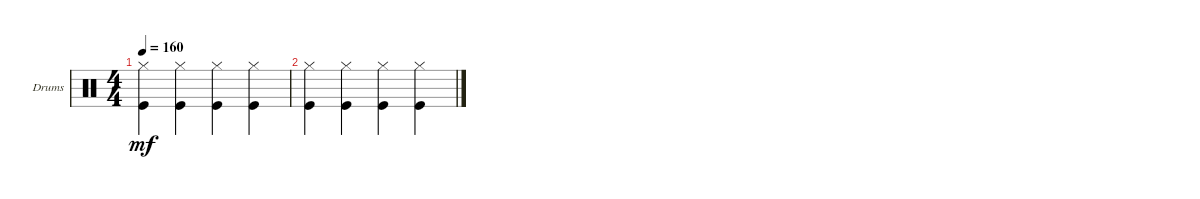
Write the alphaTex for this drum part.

\defaultSystemsLayout 4
\bracketExtendMode groupsimilarinstruments
\firstSystemTrackNameOrientation horizontal
\otherSystemsTrackNameOrientation horizontal
\track ("Drumkit" "Drums") {instrument percussion}
\staff {score}
\articulation defaults
\ts (4 4)
\tempo 160
\clef neutral
\ks c
("Kick (hit)" "Hi-Hat (closed)").4{dy mf} ("Kick (hit)" "Hi-Hat (closed)").4 ("Kick (hit)" "Hi-Hat (closed)").4 ("Kick (hit)" "Hi-Hat (closed)").4 |
("Kick (hit)" "Hi-Hat (closed)").4 ("Kick (hit)" "Hi-Hat (closed)").4 ("Kick (hit)" "Hi-Hat (closed)").4 ("Kick (hit)" "Hi-Hat (closed)").4
